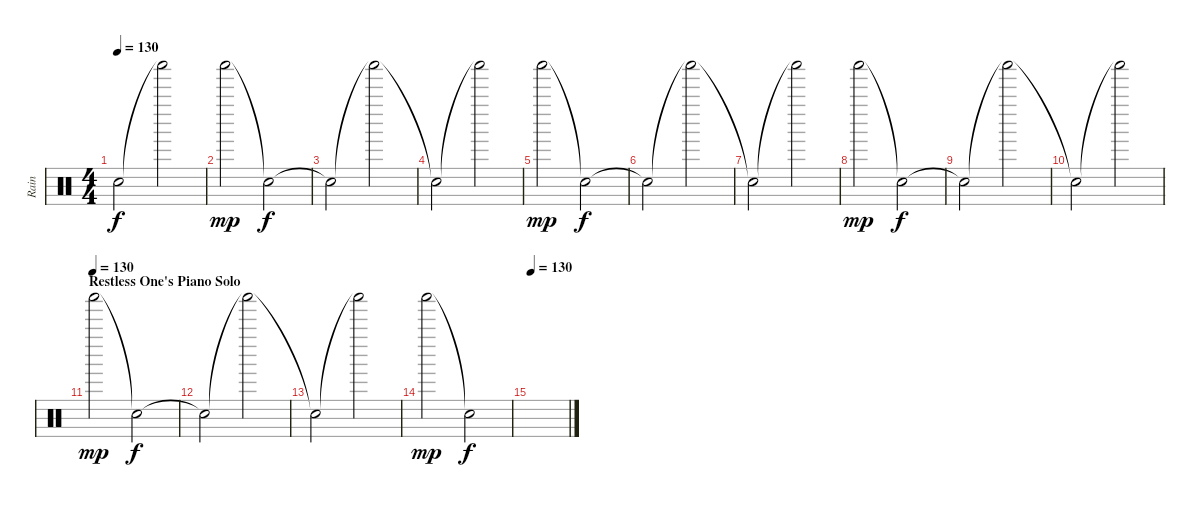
\track ("Rain" "Rain") {instrument percussion}
\staff {score}
\articulation defaults
\ts (4 4)
\tempo 130
\clef neutral
\ks c "Snare (hit)"{t}.2{dy f} "Shaker (hit)"{t}.2
|
"Shaker (hit)".2{dy mp} "Snare (hit)"{t}.2{dy f} |
"Snare (hit)"{t}.2 "Shaker (hit)"{t}.2 |
"Snare (hit)"{t}.2 "Shaker (hit)"{t}.2 |
"Shaker (hit)".2{dy mp} "Snare (hit)"{t}.2{dy f} |
"Snare (hit)"{t}.2 "Shaker (hit)"{t}.2 |
"Snare (hit)"{t}.2 "Shaker (hit)"{t}.2 |
"Shaker (hit)".2{dy mp} "Snare (hit)"{t}.2{dy f} |
"Snare (hit)"{t}.2 "Shaker (hit)"{t}.2 |
"Snare (hit)"{t}.2 "Shaker (hit)"{t}.2 |
\section ("" "Restless One's Piano Solo")
\tempo (130)
"Shaker (hit)".2{dy mp} "Snare (hit)"{t}.2{dy f} |
"Snare (hit)"{t}.2 "Shaker (hit)"{t}.2 |
"Snare (hit)"{t}.2 "Shaker (hit)"{t}.2 |
"Shaker (hit)".2{dy mp} "Snare (hit)"{t}.2{dy f} |
\tempo 130
